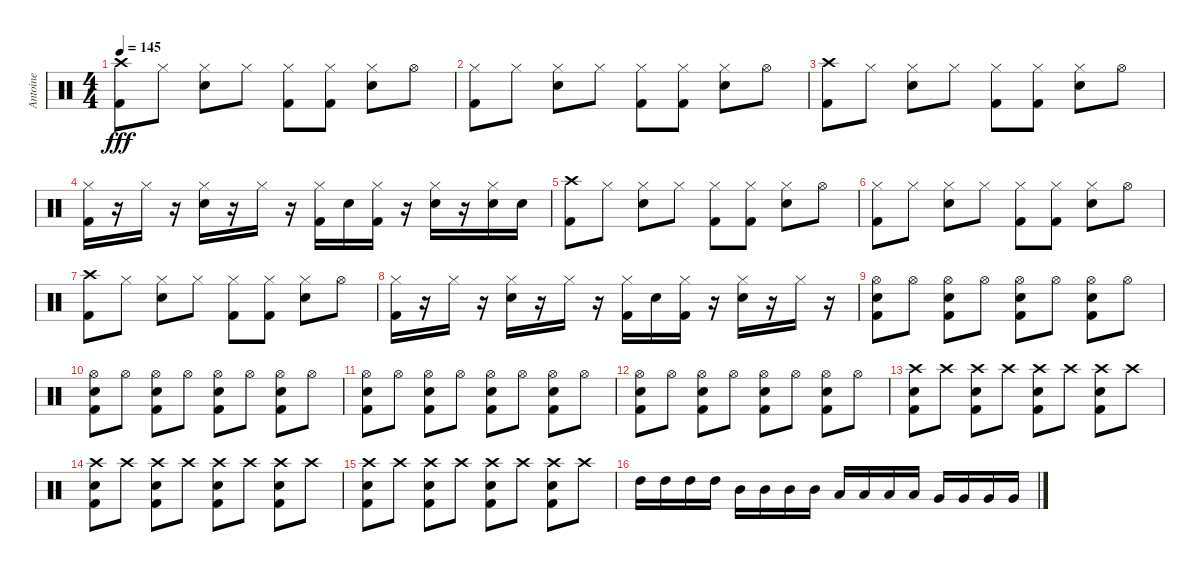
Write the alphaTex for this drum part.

\track ("Antoine" "Antoine") {instrument percussion}
\staff {score}
\articulation defaults
\ts (4 4)
\tempo 145
\clef neutral
\ks c
("Crash high (hit)" "Kick (hit) 2").8{dy fff} "Hi-Hat (closed)".8 ("Hi-Hat (closed)" "Snare (hit) 2").8 "Hi-Hat (closed)".8 ("Hi-Hat (closed)" "Kick (hit) 2").8 ("Hi-Hat (closed)" "Kick (hit) 2").8 ("Hi-Hat (closed)" "Snare (hit) 2").8 "Hi-Hat (open)".8 |
("Hi-Hat (closed)" "Kick (hit) 2").8 "Hi-Hat (closed)".8 ("Hi-Hat (closed)" "Snare (hit) 2").8 "Hi-Hat (closed)".8 ("Hi-Hat (closed)" "Kick (hit) 2").8 ("Hi-Hat (closed)" "Kick (hit) 2").8 ("Hi-Hat (closed)" "Snare (hit) 2").8 "Hi-Hat (open)".8 |
("Crash high (hit)" "Kick (hit) 2").8 "Hi-Hat (closed)".8 ("Hi-Hat (closed)" "Snare (hit) 2").8 "Hi-Hat (closed)".8 ("Hi-Hat (closed)" "Kick (hit) 2").8 ("Hi-Hat (closed)" "Kick (hit) 2").8 ("Hi-Hat (closed)" "Snare (hit) 2").8 "Hi-Hat (open)".8 |
("Hi-Hat (closed)" "Kick (hit) 2").16 r.16 "Hi-Hat (closed)".16 r.16 ("Hi-Hat (closed)" "Snare (hit) 2").16 r.16 "Hi-Hat (closed)".16 r.16 ("Hi-Hat (closed)" "Kick (hit) 2").16 "Snare (hit) 2".16 ("Hi-Hat (closed)" "Kick (hit) 2").16 r.16 ("Hi-Hat (closed)" "Snare (hit) 2").16 r.16 ("Hi-Hat (closed)" "Snare (hit) 2").16 "Snare (hit) 2".16 |
("Crash high (hit)" "Kick (hit) 2").8 "Hi-Hat (closed)".8 ("Hi-Hat (closed)" "Snare (hit) 2").8 "Hi-Hat (closed)".8 ("Hi-Hat (closed)" "Kick (hit) 2").8 ("Hi-Hat (closed)" "Kick (hit) 2").8 ("Hi-Hat (closed)" "Snare (hit) 2").8 "Hi-Hat (open)".8 |
("Hi-Hat (closed)" "Kick (hit) 2").8 "Hi-Hat (closed)".8 ("Hi-Hat (closed)" "Snare (hit) 2").8 "Hi-Hat (closed)".8 ("Hi-Hat (closed)" "Kick (hit) 2").8 ("Hi-Hat (closed)" "Kick (hit) 2").8 ("Hi-Hat (closed)" "Snare (hit) 2").8 "Hi-Hat (open)".8 |
("Crash high (hit)" "Kick (hit) 2").8 "Hi-Hat (closed)".8 ("Hi-Hat (closed)" "Snare (hit) 2").8 "Hi-Hat (closed)".8 ("Hi-Hat (closed)" "Kick (hit) 2").8 ("Hi-Hat (closed)" "Kick (hit) 2").8 ("Hi-Hat (closed)" "Snare (hit) 2").8 "Hi-Hat (open)".8 |
("Hi-Hat (closed)" "Kick (hit) 2").16 r.16 "Hi-Hat (closed)".16 r.16 ("Hi-Hat (closed)" "Snare (hit) 2").16 r.16 "Hi-Hat (closed)".16 r.16 ("Hi-Hat (closed)" "Kick (hit) 2").16 "Snare (hit) 2".16 ("Hi-Hat (closed)" "Kick (hit) 2").16 r.16 ("Hi-Hat (closed)" "Snare (hit) 2").16 r.16 "Hi-Hat (closed)".16 r.16 |
("Hi-Hat (open)" "Snare (hit) 2" "Kick (hit) 2").8 "Hi-Hat (open)".8 ("Hi-Hat (open)" "Snare (hit) 2" "Kick (hit) 2").8 "Hi-Hat (open)".8 ("Hi-Hat (open)" "Snare (hit) 2" "Kick (hit) 2").8 "Hi-Hat (open)".8 ("Hi-Hat (open)" "Snare (hit) 2" "Kick (hit) 2").8 "Hi-Hat (open)".8 |
("Hi-Hat (open)" "Snare (hit) 2" "Kick (hit) 2").8 "Hi-Hat (open)".8 ("Hi-Hat (open)" "Snare (hit) 2" "Kick (hit) 2").8 "Hi-Hat (open)".8 ("Hi-Hat (open)" "Snare (hit) 2" "Kick (hit) 2").8 "Hi-Hat (open)".8 ("Hi-Hat (open)" "Snare (hit) 2" "Kick (hit) 2").8 "Hi-Hat (open)".8 |
("Hi-Hat (open)" "Snare (hit) 2" "Kick (hit) 2").8 "Hi-Hat (open)".8 ("Hi-Hat (open)" "Snare (hit) 2" "Kick (hit) 2").8 "Hi-Hat (open)".8 ("Hi-Hat (open)" "Snare (hit) 2" "Kick (hit) 2").8 "Hi-Hat (open)".8 ("Hi-Hat (open)" "Snare (hit) 2" "Kick (hit) 2").8 "Hi-Hat (open)".8 |
("Hi-Hat (open)" "Snare (hit) 2" "Kick (hit) 2").8 "Hi-Hat (open)".8 ("Hi-Hat (open)" "Snare (hit) 2" "Kick (hit) 2").8 "Hi-Hat (open)".8 ("Hi-Hat (open)" "Snare (hit) 2" "Kick (hit) 2").8 "Hi-Hat (open)".8 ("Hi-Hat (open)" "Snare (hit) 2" "Kick (hit) 2").8 "Hi-Hat (open)".8 |
("Crash high (hit)" "Snare (hit) 2" "Kick (hit) 2").8 "Crash high (hit)".8 ("Crash high (hit)" "Snare (hit) 2" "Kick (hit) 2").8 "Crash high (hit)".8 ("Crash high (hit)" "Snare (hit) 2" "Kick (hit) 2").8 "Crash high (hit)".8 ("Crash high (hit)" "Snare (hit) 2" "Kick (hit) 2").8 "Crash high (hit)".8 |
("Crash high (hit)" "Snare (hit) 2" "Kick (hit) 2").8 "Crash high (hit)".8 ("Crash high (hit)" "Snare (hit) 2" "Kick (hit) 2").8 "Crash high (hit)".8 ("Crash high (hit)" "Snare (hit) 2" "Kick (hit) 2").8 "Crash high (hit)".8 ("Crash high (hit)" "Snare (hit) 2" "Kick (hit) 2").8 "Crash high (hit)".8 |
("Crash high (hit)" "Snare (hit) 2" "Kick (hit) 2").8 "Crash high (hit)".8 ("Crash high (hit)" "Snare (hit) 2" "Kick (hit) 2").8 "Crash high (hit)".8 ("Crash high (hit)" "Snare (hit) 2" "Kick (hit) 2").8 "Crash high (hit)".8 ("Crash high (hit)" "Snare (hit) 2" "Kick (hit) 2").8 "Crash high (hit)".8 |
"High Tom (hit)".16 "High Tom (hit)".16 "High Tom (hit)".16 "High Tom (hit)".16 "Mid Tom (hit)".16 "Mid Tom (hit)".16 "Mid Tom (hit)".16 "Mid Tom (hit)".16 "Low Tom (hit)".16 "Low Tom (hit)".16 "Low Tom (hit)".16 "Low Tom (hit)".16 "Very Low Tom (hit)".16 "Very Low Tom (hit)".16 "Very Low Tom (hit)".16 "Very Low Tom (hit)".16
